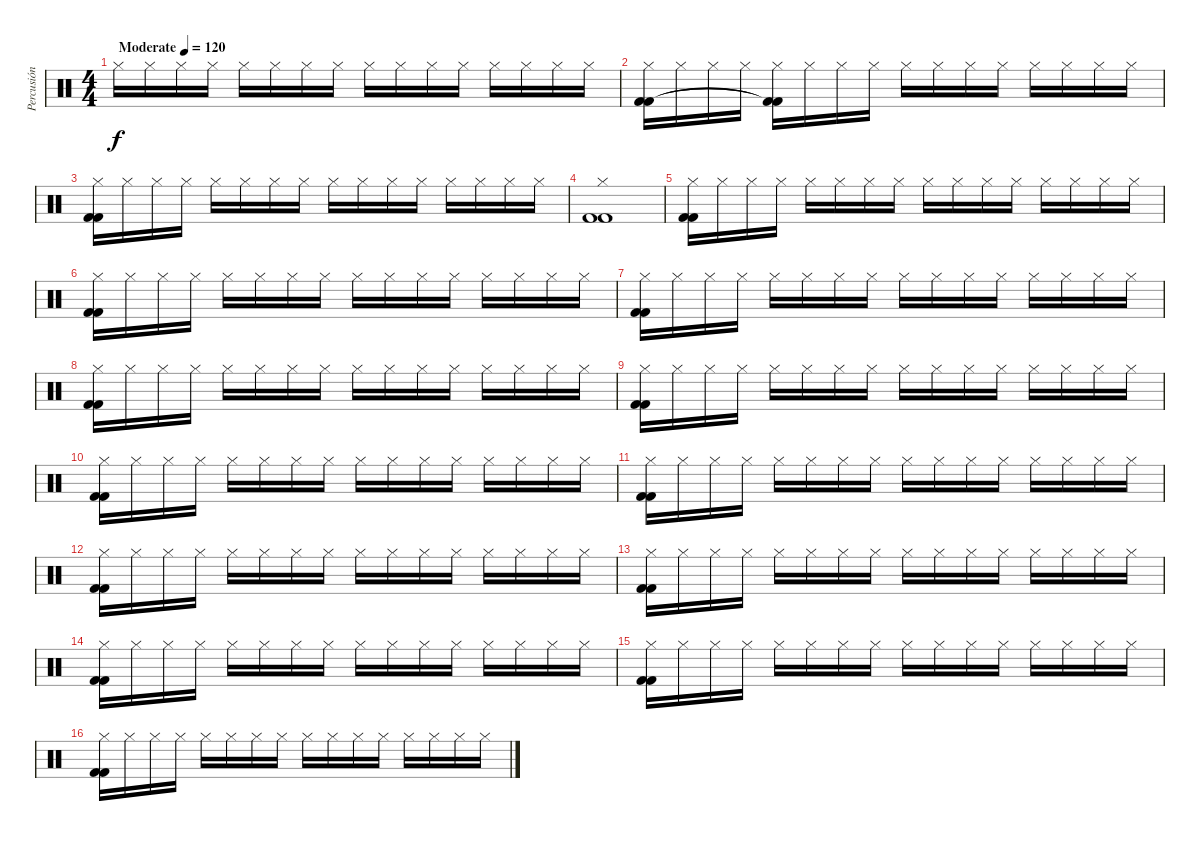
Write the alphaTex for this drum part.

\track ("Percusión" "Percusión") {instrument percussion}
\staff {score}
\articulation defaults
\ts (4 4)
\tempo (120 "Moderate")
\clef neutral
\ks c "Hi-Hat (closed)".16{dy f} "Hi-Hat (closed)".16 "Hi-Hat (closed)".16 "Hi-Hat (closed)".16 "Hi-Hat (closed)".16 "Hi-Hat (closed)".16 "Hi-Hat (closed)".16 "Hi-Hat (closed)".16 "Hi-Hat (closed)".16 "Hi-Hat (closed)".16 "Hi-Hat (closed)".16 "Hi-Hat (closed)".16 "Hi-Hat (closed)".16 "Hi-Hat (closed)".16 "Hi-Hat (closed)".16 "Hi-Hat (closed)".16
|
("Hi-Hat (closed)" "Kick (hit) 2" "Kick (hit) 2").16 "Hi-Hat (closed)".16 "Hi-Hat (closed)".16 "Hi-Hat (closed)".16 ("Hi-Hat (closed)" "Kick (hit) 2"{t} "Kick (hit) 2"{t}).16 "Hi-Hat (closed)".16 "Hi-Hat (closed)".16 "Hi-Hat (closed)".16 "Hi-Hat (closed)".16 "Hi-Hat (closed)".16 "Hi-Hat (closed)".16 "Hi-Hat (closed)".16 "Hi-Hat (closed)".16 "Hi-Hat (closed)".16 "Hi-Hat (closed)".16 "Hi-Hat (closed)".16 |
("Hi-Hat (closed)" "Kick (hit) 2" "Kick (hit) 2").16 "Hi-Hat (closed)".16 "Hi-Hat (closed)".16 "Hi-Hat (closed)".16 "Hi-Hat (closed)".16 "Hi-Hat (closed)".16 "Hi-Hat (closed)".16 "Hi-Hat (closed)".16 "Hi-Hat (closed)".16 "Hi-Hat (closed)".16 "Hi-Hat (closed)".16 "Hi-Hat (closed)".16 "Hi-Hat (closed)".16 "Hi-Hat (closed)".16 "Hi-Hat (closed)".16 "Hi-Hat (closed)".16 |
("Hi-Hat (closed)" "Kick (hit) 2" "Kick (hit) 2").1 |
("Hi-Hat (closed)" "Kick (hit) 2" "Kick (hit) 2").16 "Hi-Hat (closed)".16 "Hi-Hat (closed)".16 "Hi-Hat (closed)".16 "Hi-Hat (closed)".16 "Hi-Hat (closed)".16 "Hi-Hat (closed)".16 "Hi-Hat (closed)".16 "Hi-Hat (closed)".16 "Hi-Hat (closed)".16 "Hi-Hat (closed)".16 "Hi-Hat (closed)".16 "Hi-Hat (closed)".16 "Hi-Hat (closed)".16 "Hi-Hat (closed)".16 "Hi-Hat (closed)".16 |
("Hi-Hat (closed)" "Kick (hit) 2" "Kick (hit) 2").16 "Hi-Hat (closed)".16 "Hi-Hat (closed)".16 "Hi-Hat (closed)".16 "Hi-Hat (closed)".16 "Hi-Hat (closed)".16 "Hi-Hat (closed)".16 "Hi-Hat (closed)".16 "Hi-Hat (closed)".16 "Hi-Hat (closed)".16 "Hi-Hat (closed)".16 "Hi-Hat (closed)".16 "Hi-Hat (closed)".16 "Hi-Hat (closed)".16 "Hi-Hat (closed)".16 "Hi-Hat (closed)".16 |
("Hi-Hat (closed)" "Kick (hit) 2" "Kick (hit) 2").16 "Hi-Hat (closed)".16 "Hi-Hat (closed)".16 "Hi-Hat (closed)".16 "Hi-Hat (closed)".16 "Hi-Hat (closed)".16 "Hi-Hat (closed)".16 "Hi-Hat (closed)".16 "Hi-Hat (closed)".16 "Hi-Hat (closed)".16 "Hi-Hat (closed)".16 "Hi-Hat (closed)".16 "Hi-Hat (closed)".16 "Hi-Hat (closed)".16 "Hi-Hat (closed)".16 "Hi-Hat (closed)".16 |
("Hi-Hat (closed)" "Kick (hit) 2" "Kick (hit) 2").16 "Hi-Hat (closed)".16 "Hi-Hat (closed)".16 "Hi-Hat (closed)".16 "Hi-Hat (closed)".16 "Hi-Hat (closed)".16 "Hi-Hat (closed)".16 "Hi-Hat (closed)".16 "Hi-Hat (closed)".16 "Hi-Hat (closed)".16 "Hi-Hat (closed)".16 "Hi-Hat (closed)".16 "Hi-Hat (closed)".16 "Hi-Hat (closed)".16 "Hi-Hat (closed)".16 "Hi-Hat (closed)".16 |
("Hi-Hat (closed)" "Kick (hit) 2" "Kick (hit) 2").16 "Hi-Hat (closed)".16 "Hi-Hat (closed)".16 "Hi-Hat (closed)".16 "Hi-Hat (closed)".16 "Hi-Hat (closed)".16 "Hi-Hat (closed)".16 "Hi-Hat (closed)".16 "Hi-Hat (closed)".16 "Hi-Hat (closed)".16 "Hi-Hat (closed)".16 "Hi-Hat (closed)".16 "Hi-Hat (closed)".16 "Hi-Hat (closed)".16 "Hi-Hat (closed)".16 "Hi-Hat (closed)".16 |
("Hi-Hat (closed)" "Kick (hit) 2" "Kick (hit) 2").16 "Hi-Hat (closed)".16 "Hi-Hat (closed)".16 "Hi-Hat (closed)".16 "Hi-Hat (closed)".16 "Hi-Hat (closed)".16 "Hi-Hat (closed)".16 "Hi-Hat (closed)".16 "Hi-Hat (closed)".16 "Hi-Hat (closed)".16 "Hi-Hat (closed)".16 "Hi-Hat (closed)".16 "Hi-Hat (closed)".16 "Hi-Hat (closed)".16 "Hi-Hat (closed)".16 "Hi-Hat (closed)".16 |
("Hi-Hat (closed)" "Kick (hit) 2" "Kick (hit) 2").16 "Hi-Hat (closed)".16 "Hi-Hat (closed)".16 "Hi-Hat (closed)".16 "Hi-Hat (closed)".16 "Hi-Hat (closed)".16 "Hi-Hat (closed)".16 "Hi-Hat (closed)".16 "Hi-Hat (closed)".16 "Hi-Hat (closed)".16 "Hi-Hat (closed)".16 "Hi-Hat (closed)".16 "Hi-Hat (closed)".16 "Hi-Hat (closed)".16 "Hi-Hat (closed)".16 "Hi-Hat (closed)".16 |
("Hi-Hat (closed)" "Kick (hit) 2" "Kick (hit) 2").16 "Hi-Hat (closed)".16 "Hi-Hat (closed)".16 "Hi-Hat (closed)".16 "Hi-Hat (closed)".16 "Hi-Hat (closed)".16 "Hi-Hat (closed)".16 "Hi-Hat (closed)".16 "Hi-Hat (closed)".16 "Hi-Hat (closed)".16 "Hi-Hat (closed)".16 "Hi-Hat (closed)".16 "Hi-Hat (closed)".16 "Hi-Hat (closed)".16 "Hi-Hat (closed)".16 "Hi-Hat (closed)".16 |
("Hi-Hat (closed)" "Kick (hit) 2" "Kick (hit) 2").16 "Hi-Hat (closed)".16 "Hi-Hat (closed)".16 "Hi-Hat (closed)".16 "Hi-Hat (closed)".16 "Hi-Hat (closed)".16 "Hi-Hat (closed)".16 "Hi-Hat (closed)".16 "Hi-Hat (closed)".16 "Hi-Hat (closed)".16 "Hi-Hat (closed)".16 "Hi-Hat (closed)".16 "Hi-Hat (closed)".16 "Hi-Hat (closed)".16 "Hi-Hat (closed)".16 "Hi-Hat (closed)".16 |
("Hi-Hat (closed)" "Kick (hit) 2" "Kick (hit) 2").16 "Hi-Hat (closed)".16 "Hi-Hat (closed)".16 "Hi-Hat (closed)".16 "Hi-Hat (closed)".16 "Hi-Hat (closed)".16 "Hi-Hat (closed)".16 "Hi-Hat (closed)".16 "Hi-Hat (closed)".16 "Hi-Hat (closed)".16 "Hi-Hat (closed)".16 "Hi-Hat (closed)".16 "Hi-Hat (closed)".16 "Hi-Hat (closed)".16 "Hi-Hat (closed)".16 "Hi-Hat (closed)".16 |
("Hi-Hat (closed)" "Kick (hit) 2" "Kick (hit) 2").16 "Hi-Hat (closed)".16 "Hi-Hat (closed)".16 "Hi-Hat (closed)".16 "Hi-Hat (closed)".16 "Hi-Hat (closed)".16 "Hi-Hat (closed)".16 "Hi-Hat (closed)".16 "Hi-Hat (closed)".16 "Hi-Hat (closed)".16 "Hi-Hat (closed)".16 "Hi-Hat (closed)".16 "Hi-Hat (closed)".16 "Hi-Hat (closed)".16 "Hi-Hat (closed)".16 "Hi-Hat (closed)".16 |
("Hi-Hat (closed)" "Kick (hit) 2" "Kick (hit) 2").16 "Hi-Hat (closed)".16 "Hi-Hat (closed)".16 "Hi-Hat (closed)".16 "Hi-Hat (closed)".16 "Hi-Hat (closed)".16 "Hi-Hat (closed)".16 "Hi-Hat (closed)".16 "Hi-Hat (closed)".16 "Hi-Hat (closed)".16 "Hi-Hat (closed)".16 "Hi-Hat (closed)".16 "Hi-Hat (closed)".16 "Hi-Hat (closed)".16 "Hi-Hat (closed)".16 "Hi-Hat (closed)".16
